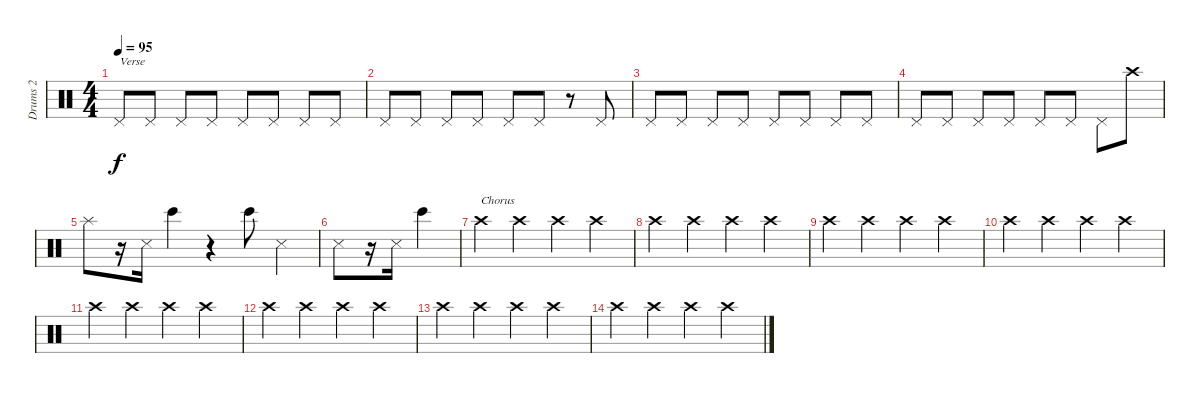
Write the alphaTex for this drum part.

\track ("Drums 2" "Drums 2") {instrument percussion}
\staff {score}
\articulation defaults
\ts (4 4)
\tempo 95
\clef neutral
\ks c "Pedal Hi-Hat (hit)".8{txt "Verse" dy f} "Pedal Hi-Hat (hit)".8 "Pedal Hi-Hat (hit)".8 "Pedal Hi-Hat (hit)".8 "Pedal Hi-Hat (hit)".8 "Pedal Hi-Hat (hit)".8 "Pedal Hi-Hat (hit)".8 "Pedal Hi-Hat (hit)".8
|
"Pedal Hi-Hat (hit)".8 "Pedal Hi-Hat (hit)".8 "Pedal Hi-Hat (hit)".8 "Pedal Hi-Hat (hit)".8 "Pedal Hi-Hat (hit)".8 "Pedal Hi-Hat (hit)".8 r.8 "Pedal Hi-Hat (hit)".8 |
"Pedal Hi-Hat (hit)".8 "Pedal Hi-Hat (hit)".8 "Pedal Hi-Hat (hit)".8 "Pedal Hi-Hat (hit)".8 "Pedal Hi-Hat (hit)".8 "Pedal Hi-Hat (hit)".8 "Pedal Hi-Hat (hit)".8 "Pedal Hi-Hat (hit)".8 |
"Pedal Hi-Hat (hit)".8 "Pedal Hi-Hat (hit)".8 "Pedal Hi-Hat (hit)".8 "Pedal Hi-Hat (hit)".8 "Pedal Hi-Hat (hit)".8 "Pedal Hi-Hat (hit)".8 "Pedal Hi-Hat (hit)".8 "Crash high (hit)".8 |
"Splash (hit)".8 r.16 "Snare (side stick) 3".16 "Bongo High (hit)".4 r.4 "Bongo High (hit)".8 "Snare (side stick) 3".4 |
"Snare (side stick) 3".8 r.16 "Snare (side stick) 3".16 "Bongo High (hit)".4 |
"Crash high (hit)".4{txt "Chorus"} "Crash high (hit)".4 "Crash high (hit)".4 "Crash high (hit)".4 |
"Crash high (hit)".4 "Crash high (hit)".4 "Crash high (hit)".4 "Crash high (hit)".4 |
"Crash high (hit)".4 "Crash high (hit)".4 "Crash high (hit)".4 "Crash high (hit)".4 |
"Crash high (hit)".4 "Crash high (hit)".4 "Crash high (hit)".4 "Crash high (hit)".4 |
"Crash high (hit)".4 "Crash high (hit)".4 "Crash high (hit)".4 "Crash high (hit)".4 |
"Crash high (hit)".4 "Crash high (hit)".4 "Crash high (hit)".4 "Crash high (hit)".4 |
"Crash high (hit)".4 "Crash high (hit)".4 "Crash high (hit)".4 "Crash high (hit)".4 |
"Crash high (hit)".4 "Crash high (hit)".4 "Crash high (hit)".4 "Crash high (hit)".4
